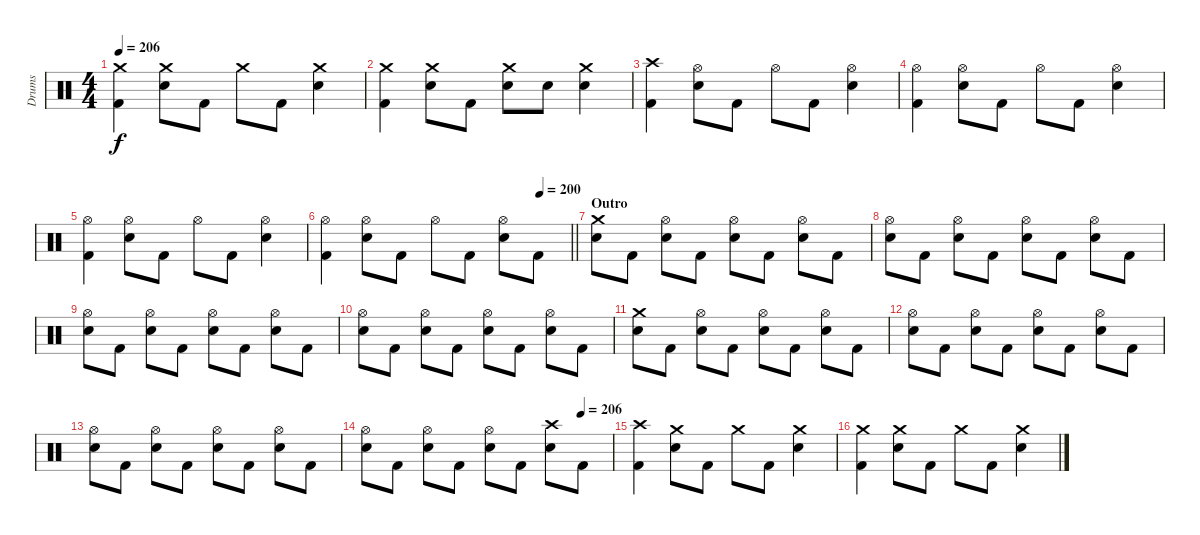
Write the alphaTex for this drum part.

\track ("Drums" "Drums") {instrument percussion}
\staff {score}
\articulation defaults
\ts (4 4)
\tempo 206
\clef neutral
\ks c
("Crash medium (hit)" "Kick (hit) 2").4{dy f} ("Crash medium (hit)" "Electric Snare (hit)").8 "Kick (hit) 2".8 "Crash medium (hit)".8 "Kick (hit) 2".8 ("Crash medium (hit)" "Electric Snare (hit)").4 |
("Crash medium (hit)" "Kick (hit) 2").4 ("Crash medium (hit)" "Electric Snare (hit)").8 "Kick (hit) 2".8 ("Crash medium (hit)" "Electric Snare (hit)").8 "Electric Snare (hit)".8 ("Crash medium (hit)" "Electric Snare (hit)").4 |
("Crash high (hit)" "Kick (hit) 2").4 ("Hi-Hat (open)" "Electric Snare (hit)").8 "Kick (hit) 2".8 "Hi-Hat (open)".8 "Kick (hit) 2".8 ("Hi-Hat (open)" "Electric Snare (hit)").4 |
("Hi-Hat (open)" "Kick (hit) 2").4 ("Hi-Hat (open)" "Electric Snare (hit)").8 "Kick (hit) 2".8 "Hi-Hat (open)".8 "Kick (hit) 2".8 ("Hi-Hat (open)" "Electric Snare (hit)").4 |
("Hi-Hat (open)" "Kick (hit) 2").4 ("Hi-Hat (open)" "Electric Snare (hit)").8 "Kick (hit) 2".8 "Hi-Hat (open)".8 "Kick (hit) 2".8 ("Hi-Hat (open)" "Electric Snare (hit)").4 |
\tempo (200 0.875)
\barLineRight lightlight
("Hi-Hat (open)" "Kick (hit) 2").4 ("Hi-Hat (open)" "Electric Snare (hit)").8 "Kick (hit) 2".8 "Hi-Hat (open)".8 "Kick (hit) 2".8 ("Hi-Hat (open)" "Electric Snare (hit)").8 "Kick (hit) 2".8 |
\section ("" "Outro")
("Crash medium (hit)" "Electric Snare (hit)").8 "Kick (hit) 2".8 ("Hi-Hat (open)" "Electric Snare (hit)").8 "Kick (hit) 2".8 ("Hi-Hat (open)" "Electric Snare (hit)").8 "Kick (hit) 2".8 ("Hi-Hat (open)" "Electric Snare (hit)").8 "Kick (hit) 2".8 |
("Hi-Hat (open)" "Electric Snare (hit)").8 "Kick (hit) 2".8 ("Hi-Hat (open)" "Electric Snare (hit)").8 "Kick (hit) 2".8 ("Hi-Hat (open)" "Electric Snare (hit)").8 "Kick (hit) 2".8 ("Hi-Hat (open)" "Electric Snare (hit)").8 "Kick (hit) 2".8 |
("Hi-Hat (open)" "Electric Snare (hit)").8 "Kick (hit) 2".8 ("Hi-Hat (open)" "Electric Snare (hit)").8 "Kick (hit) 2".8 ("Hi-Hat (open)" "Electric Snare (hit)").8 "Kick (hit) 2".8 ("Hi-Hat (open)" "Electric Snare (hit)").8 "Kick (hit) 2".8 |
("Hi-Hat (open)" "Electric Snare (hit)").8 "Kick (hit) 2".8 ("Hi-Hat (open)" "Electric Snare (hit)").8 "Kick (hit) 2".8 ("Hi-Hat (open)" "Electric Snare (hit)").8 "Kick (hit) 2".8 ("Hi-Hat (open)" "Electric Snare (hit)").8 "Kick (hit) 2".8 |
("Crash medium (hit)" "Electric Snare (hit)").8 "Kick (hit) 2".8 ("Hi-Hat (open)" "Electric Snare (hit)").8 "Kick (hit) 2".8 ("Hi-Hat (open)" "Electric Snare (hit)").8 "Kick (hit) 2".8 ("Hi-Hat (open)" "Electric Snare (hit)").8 "Kick (hit) 2".8 |
("Hi-Hat (open)" "Electric Snare (hit)").8 "Kick (hit) 2".8 ("Hi-Hat (open)" "Electric Snare (hit)").8 "Kick (hit) 2".8 ("Hi-Hat (open)" "Electric Snare (hit)").8 "Kick (hit) 2".8 ("Hi-Hat (open)" "Electric Snare (hit)").8 "Kick (hit) 2".8 |
("Hi-Hat (open)" "Electric Snare (hit)").8 "Kick (hit) 2".8 ("Hi-Hat (open)" "Electric Snare (hit)").8 "Kick (hit) 2".8 ("Hi-Hat (open)" "Electric Snare (hit)").8 "Kick (hit) 2".8 ("Hi-Hat (open)" "Electric Snare (hit)").8 "Kick (hit) 2".8 |
\tempo (206 0.875)
("Hi-Hat (open)" "Electric Snare (hit)").8 "Kick (hit) 2".8 ("Hi-Hat (open)" "Electric Snare (hit)").8 "Kick (hit) 2".8 ("Hi-Hat (open)" "Electric Snare (hit)").8 "Kick (hit) 2".8 ("Crash high (hit)" "Electric Snare (hit)").8 "Kick (hit) 2".8 |
("Crash high (hit)" "Kick (hit) 2").4 ("Crash medium (hit)" "Electric Snare (hit)").8 "Kick (hit) 2".8 "Crash medium (hit)".8 "Kick (hit) 2".8 ("Crash medium (hit)" "Electric Snare (hit)").4 |
("Crash medium (hit)" "Kick (hit) 2").4 ("Crash medium (hit)" "Electric Snare (hit)").8 "Kick (hit) 2".8 "Crash medium (hit)".8 "Kick (hit) 2".8 ("Crash medium (hit)" "Electric Snare (hit)").4
